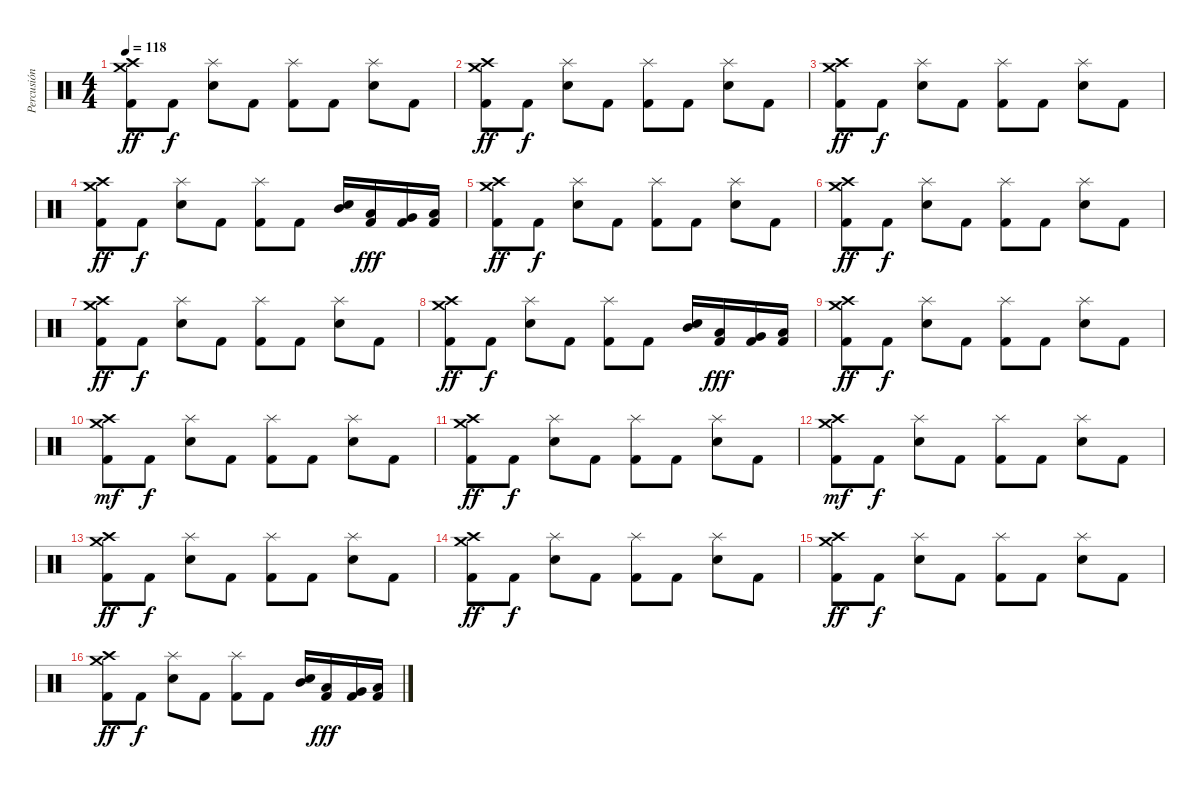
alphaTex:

\track ("Percusión" "Percusión") {instrument percussion}
\staff {score}
\articulation defaults
\ts (4 4)
\tempo 118
\clef neutral
\ks c
("Kick (hit) 2" "Crash medium (hit)" "Crash high (hit)").8{dy ff} "Kick (hit) 2".8{dy f} ("Snare (hit) 2" "Splash (hit)").8 "Kick (hit) 2".8 ("Kick (hit) 2" "Splash (hit)").8 "Kick (hit) 2".8 ("Snare (hit) 2" "Splash (hit)").8 "Kick (hit) 2".8 |
("Kick (hit) 2" "Crash medium (hit)" "Crash high (hit)").8{dy ff} "Kick (hit) 2".8{dy f} ("Snare (hit) 2" "Splash (hit)").8 "Kick (hit) 2".8 ("Kick (hit) 2" "Splash (hit)").8 "Kick (hit) 2".8 ("Snare (hit) 2" "Splash (hit)").8 "Kick (hit) 2".8 |
("Kick (hit) 2" "Crash medium (hit)" "Crash high (hit)").8{dy ff} "Kick (hit) 2".8{dy f} ("Snare (hit) 2" "Splash (hit)").8 "Kick (hit) 2".8 ("Kick (hit) 2" "Splash (hit)").8 "Kick (hit) 2".8 ("Snare (hit) 2" "Splash (hit)").8 "Kick (hit) 2".8 |
("Kick (hit) 2" "Crash medium (hit)" "Crash high (hit)").8{dy ff} "Kick (hit) 2".8{dy f} ("Snare (hit) 2" "Splash (hit)").8 "Kick (hit) 2".8 ("Kick (hit) 2" "Splash (hit)").8 "Kick (hit) 2".8 ("Snare (hit) 2" "Mid Tom (hit)").16 ("Low Tom (hit)" "Kick (hit) 2").16{dy fff} ("Very Low Tom (hit)" "Kick (hit) 2").16 ("Low Floor Tom (hit)" "Kick (hit) 2").16 |
("Kick (hit) 2" "Crash medium (hit)" "Crash high (hit)").8{dy ff} "Kick (hit) 2".8{dy f} ("Snare (hit) 2" "Splash (hit)").8 "Kick (hit) 2".8 ("Kick (hit) 2" "Splash (hit)").8 "Kick (hit) 2".8 ("Snare (hit) 2" "Splash (hit)").8 "Kick (hit) 2".8 |
("Kick (hit) 2" "Crash medium (hit)" "Crash high (hit)").8{dy ff} "Kick (hit) 2".8{dy f} ("Snare (hit) 2" "Splash (hit)").8 "Kick (hit) 2".8 ("Kick (hit) 2" "Splash (hit)").8 "Kick (hit) 2".8 ("Snare (hit) 2" "Splash (hit)").8 "Kick (hit) 2".8 |
("Kick (hit) 2" "Crash medium (hit)" "Crash high (hit)").8{dy ff} "Kick (hit) 2".8{dy f} ("Snare (hit) 2" "Splash (hit)").8 "Kick (hit) 2".8 ("Kick (hit) 2" "Splash (hit)").8 "Kick (hit) 2".8 ("Snare (hit) 2" "Splash (hit)").8 "Kick (hit) 2".8 |
("Kick (hit) 2" "Crash medium (hit)" "Crash high (hit)").8{dy ff} "Kick (hit) 2".8{dy f} ("Snare (hit) 2" "Splash (hit)").8 "Kick (hit) 2".8 ("Kick (hit) 2" "Splash (hit)").8 "Kick (hit) 2".8 ("Snare (hit) 2" "Mid Tom (hit)").16 ("Low Tom (hit)" "Kick (hit) 2").16{dy fff} ("Very Low Tom (hit)" "Kick (hit) 2").16 ("Low Floor Tom (hit)" "Kick (hit) 2").16 |
("Kick (hit) 2" "Crash medium (hit)" "Crash high (hit)").8{dy ff} "Kick (hit) 2".8{dy f} ("Snare (hit) 2" "Splash (hit)").8 "Kick (hit) 2".8 ("Kick (hit) 2" "Splash (hit)").8 "Kick (hit) 2".8 ("Snare (hit) 2" "Splash (hit)").8 "Kick (hit) 2".8 |
("Kick (hit) 2" "Crash medium (hit)" "Crash high (hit)").8{dy mf} "Kick (hit) 2".8{dy f} ("Snare (hit) 2" "Splash (hit)").8 "Kick (hit) 2".8 ("Kick (hit) 2" "Splash (hit)").8 "Kick (hit) 2".8 ("Snare (hit) 2" "Splash (hit)").8 "Kick (hit) 2".8 |
("Kick (hit) 2" "Crash medium (hit)" "Crash high (hit)").8{dy ff} "Kick (hit) 2".8{dy f} ("Snare (hit) 2" "Splash (hit)").8 "Kick (hit) 2".8 ("Kick (hit) 2" "Splash (hit)").8 "Kick (hit) 2".8 ("Snare (hit) 2" "Splash (hit)").8 "Kick (hit) 2".8 |
("Kick (hit) 2" "Crash medium (hit)" "Crash high (hit)").8{dy mf} "Kick (hit) 2".8{dy f} ("Snare (hit) 2" "Splash (hit)").8 "Kick (hit) 2".8 ("Kick (hit) 2" "Splash (hit)").8 "Kick (hit) 2".8 ("Snare (hit) 2" "Splash (hit)").8 "Kick (hit) 2".8 |
("Kick (hit) 2" "Crash medium (hit)" "Crash high (hit)").8{dy ff} "Kick (hit) 2".8{dy f} ("Snare (hit) 2" "Splash (hit)").8 "Kick (hit) 2".8 ("Kick (hit) 2" "Splash (hit)").8 "Kick (hit) 2".8 ("Snare (hit) 2" "Splash (hit)").8 "Kick (hit) 2".8 |
("Kick (hit) 2" "Crash medium (hit)" "Crash high (hit)").8{dy ff} "Kick (hit) 2".8{dy f} ("Snare (hit) 2" "Splash (hit)").8 "Kick (hit) 2".8 ("Kick (hit) 2" "Splash (hit)").8 "Kick (hit) 2".8 ("Snare (hit) 2" "Splash (hit)").8 "Kick (hit) 2".8 |
("Kick (hit) 2" "Crash medium (hit)" "Crash high (hit)").8{dy ff} "Kick (hit) 2".8{dy f} ("Snare (hit) 2" "Splash (hit)").8 "Kick (hit) 2".8 ("Kick (hit) 2" "Splash (hit)").8 "Kick (hit) 2".8 ("Snare (hit) 2" "Splash (hit)").8 "Kick (hit) 2".8 |
("Kick (hit) 2" "Crash medium (hit)" "Crash high (hit)").8{dy ff} "Kick (hit) 2".8{dy f} ("Snare (hit) 2" "Splash (hit)").8 "Kick (hit) 2".8 ("Kick (hit) 2" "Splash (hit)").8 "Kick (hit) 2".8 ("Snare (hit) 2" "Mid Tom (hit)").16 ("Low Tom (hit)" "Kick (hit) 2").16{dy fff} ("Very Low Tom (hit)" "Kick (hit) 2").16 ("Low Floor Tom (hit)" "Kick (hit) 2").16
